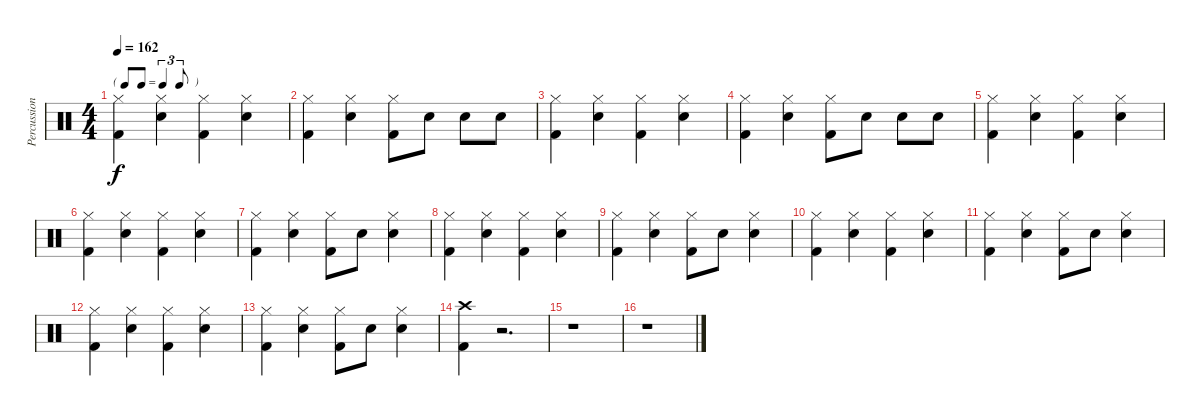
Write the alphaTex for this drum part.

\track ("Percussion" "Percussion") {instrument percussion}
\staff {score}
\articulation defaults
\ts (4 4)
\tf triplet8th
\tempo 162
\clef neutral
\ks c
("Kick (hit) 2" "Hi-Hat (closed)").4{dy f} ("Snare (hit) 2" "Hi-Hat (closed)").4 ("Kick (hit) 2" "Hi-Hat (closed)").4 ("Snare (hit) 2" "Hi-Hat (closed)").4 |
("Kick (hit) 2" "Hi-Hat (closed)").4 ("Snare (hit) 2" "Hi-Hat (closed)").4 ("Kick (hit) 2" "Hi-Hat (closed)").8 "Snare (hit) 2".8 "Snare (hit) 2".8 "Snare (hit) 2".8 |
("Kick (hit) 2" "Hi-Hat (closed)").4 ("Snare (hit) 2" "Hi-Hat (closed)").4 ("Kick (hit) 2" "Hi-Hat (closed)").4 ("Snare (hit) 2" "Hi-Hat (closed)").4 |
("Kick (hit) 2" "Hi-Hat (closed)").4 ("Snare (hit) 2" "Hi-Hat (closed)").4 ("Kick (hit) 2" "Hi-Hat (closed)").8 "Snare (hit) 2".8 "Snare (hit) 2".8 "Snare (hit) 2".8 |
("Kick (hit) 2" "Hi-Hat (closed)").4 ("Snare (hit) 2" "Hi-Hat (closed)").4 ("Kick (hit) 2" "Hi-Hat (closed)").4 ("Snare (hit) 2" "Hi-Hat (closed)").4 |
("Kick (hit) 2" "Hi-Hat (closed)").4 ("Snare (hit) 2" "Hi-Hat (closed)").4 ("Kick (hit) 2" "Hi-Hat (closed)").4 ("Snare (hit) 2" "Hi-Hat (closed)").4 |
("Kick (hit) 2" "Hi-Hat (closed)").4 ("Snare (hit) 2" "Hi-Hat (closed)").4 ("Kick (hit) 2" "Hi-Hat (closed)").8 "Snare (hit) 2".8 ("Snare (hit) 2" "Hi-Hat (closed)").4 |
("Kick (hit) 2" "Hi-Hat (closed)").4 ("Snare (hit) 2" "Hi-Hat (closed)").4 ("Kick (hit) 2" "Hi-Hat (closed)").4 ("Snare (hit) 2" "Hi-Hat (closed)").4 |
("Kick (hit) 2" "Hi-Hat (closed)").4 ("Snare (hit) 2" "Hi-Hat (closed)").4 ("Kick (hit) 2" "Hi-Hat (closed)").8 "Snare (hit) 2".8 ("Snare (hit) 2" "Hi-Hat (closed)").4 |
("Kick (hit) 2" "Hi-Hat (closed)").4 ("Snare (hit) 2" "Hi-Hat (closed)").4 ("Kick (hit) 2" "Hi-Hat (closed)").4 ("Snare (hit) 2" "Hi-Hat (closed)").4 |
("Kick (hit) 2" "Hi-Hat (closed)").4 ("Snare (hit) 2" "Hi-Hat (closed)").4 ("Kick (hit) 2" "Hi-Hat (closed)").8 "Snare (hit) 2".8 ("Snare (hit) 2" "Hi-Hat (closed)").4 |
("Kick (hit) 2" "Hi-Hat (closed)").4 ("Snare (hit) 2" "Hi-Hat (closed)").4 ("Kick (hit) 2" "Hi-Hat (closed)").4 ("Snare (hit) 2" "Hi-Hat (closed)").4 |
("Kick (hit) 2" "Hi-Hat (closed)").4 ("Snare (hit) 2" "Hi-Hat (closed)").4 ("Kick (hit) 2" "Hi-Hat (closed)").8 "Snare (hit) 2".8 ("Snare (hit) 2" "Hi-Hat (closed)").4 |
("Kick (hit) 2" "Crash high (hit)").4 r.2{d} |
r.1 |
r.1
